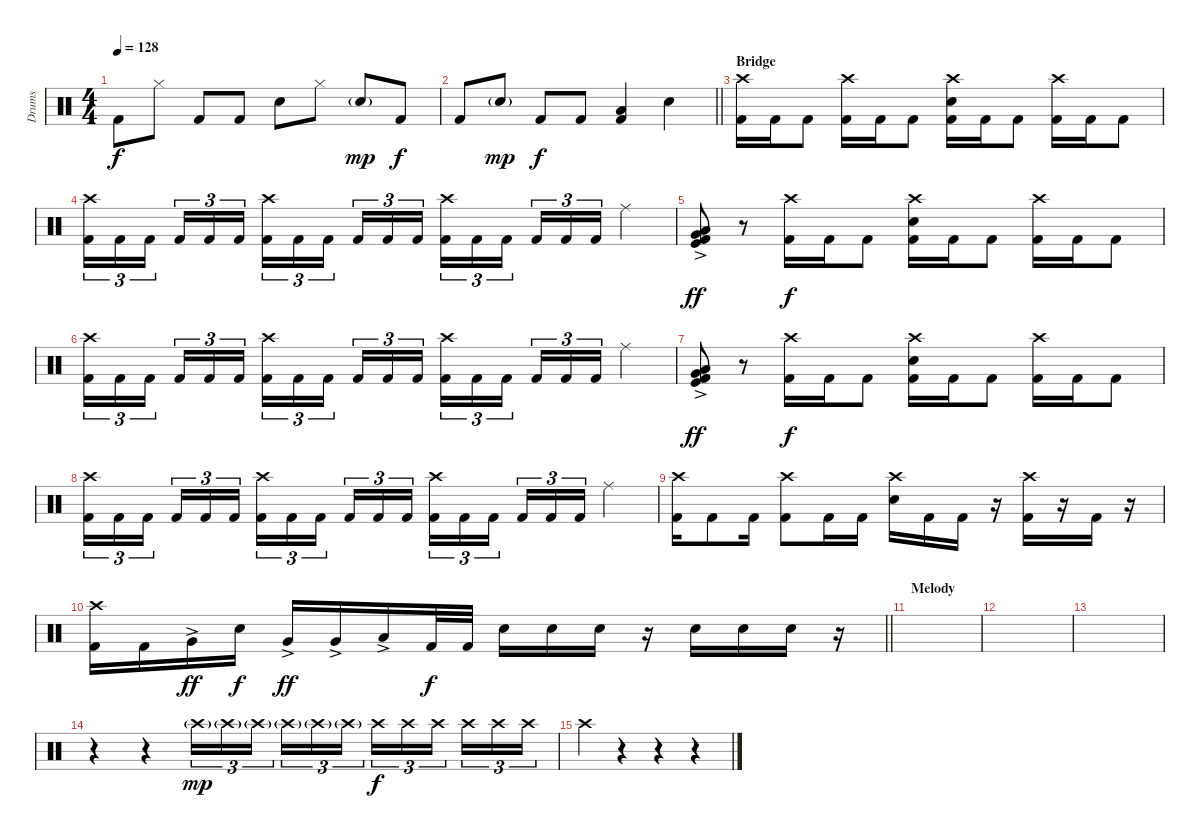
\track ("Drums" "Drums") {instrument percussion}
\staff {score}
\articulation defaults
\ts (4 4)
\tempo 128
\clef neutral
\ks c "Kick (hit) 2".8{dy f} "Hi-Hat (closed)".8 "Kick (hit) 2".8 "Kick (hit) 2".8 "Electric Snare (hit)".8 "Hi-Hat (closed)".8 "Electric Snare (hit)"{g}.8{dy mp} "Kick (hit) 2".8{dy f}
|
\barLineRight lightlight "Kick (hit) 2".8 "Electric Snare (hit)"{g}.8{dy mp} "Kick (hit) 2".8{dy f} "Kick (hit) 2".8
("Low Tom (hit)" "Kick (hit) 2").4 "Electric Snare (hit)".4 |
\section ("" "Bridge")
("Crash high (hit)" "Kick (hit) 2").16 "Kick (hit) 2".16 "Kick (hit) 2".8 ("Crash high (hit)" "Kick (hit) 2").16 "Kick (hit) 2".16 "Kick (hit) 2".8 ("Crash high (hit)" "Electric Snare (hit)" "Kick (hit) 2").16 "Kick (hit) 2".16 "Kick (hit) 2".8 ("Crash high (hit)" "Kick (hit) 2").16 "Kick (hit) 2".16 "Kick (hit) 2".8 |
("Crash high (hit)" "Kick (hit) 2").16{tu (3 2)} "Kick (hit) 2".16{tu (3 2)} "Kick (hit) 2".16{tu (3 2)} "Kick (hit) 2".16{tu (3 2)} "Kick (hit) 2".16{tu (3 2)} "Kick (hit) 2".16{tu (3 2)} ("Crash high (hit)" "Kick (hit) 2").16{tu (3 2)} "Kick (hit) 2".16{tu (3 2)} "Kick (hit) 2".16{tu (3 2)} "Kick (hit) 2".16{tu (3 2)} "Kick (hit) 2".16{tu (3 2)} "Kick (hit) 2".16{tu (3 2)} ("Crash high (hit)" "Kick (hit) 2").16{tu (3 2)} "Kick (hit) 2".16{tu (3 2)} "Kick (hit) 2".16{tu (3 2)} "Kick (hit) 2".16{tu (3 2)} "Kick (hit) 2".16{tu (3 2)} "Kick (hit) 2".16{tu (3 2)} "Ride (middle)".4 |
("Very Low Tom (hit)"{ac} "Low Floor Tom (hit)"{ac} "Kick (hit)" "Kick (hit) 2").8{dy ff} r.8 ("Crash high (hit)" "Kick (hit) 2").16{dy f} "Kick (hit) 2".16 "Kick (hit) 2".8 ("Crash high (hit)" "Electric Snare (hit)" "Kick (hit) 2").16 "Kick (hit) 2".16 "Kick (hit) 2".8 ("Crash high (hit)" "Kick (hit) 2").16 "Kick (hit) 2".16 "Kick (hit) 2".8 |
("Crash high (hit)" "Kick (hit) 2").16{tu (3 2)} "Kick (hit) 2".16{tu (3 2)} "Kick (hit) 2".16{tu (3 2)} "Kick (hit) 2".16{tu (3 2)} "Kick (hit) 2".16{tu (3 2)} "Kick (hit) 2".16{tu (3 2)} ("Crash high (hit)" "Kick (hit) 2").16{tu (3 2)} "Kick (hit) 2".16{tu (3 2)} "Kick (hit) 2".16{tu (3 2)} "Kick (hit) 2".16{tu (3 2)} "Kick (hit) 2".16{tu (3 2)} "Kick (hit) 2".16{tu (3 2)} ("Crash high (hit)" "Kick (hit) 2").16{tu (3 2)} "Kick (hit) 2".16{tu (3 2)} "Kick (hit) 2".16{tu (3 2)} "Kick (hit) 2".16{tu (3 2)} "Kick (hit) 2".16{tu (3 2)} "Kick (hit) 2".16{tu (3 2)} "Ride (middle)".4 |
("Very Low Tom (hit)"{ac} "Low Floor Tom (hit)"{ac} "Kick (hit)" "Kick (hit) 2").8{dy ff} r.8 ("Crash high (hit)" "Kick (hit) 2").16{dy f} "Kick (hit) 2".16 "Kick (hit) 2".8 ("Crash high (hit)" "Electric Snare (hit)" "Kick (hit) 2").16 "Kick (hit) 2".16 "Kick (hit) 2".8 ("Crash high (hit)" "Kick (hit) 2").16 "Kick (hit) 2".16 "Kick (hit) 2".8 |
("Crash high (hit)" "Kick (hit) 2").16{tu (3 2)} "Kick (hit) 2".16{tu (3 2)} "Kick (hit) 2".16{tu (3 2)} "Kick (hit) 2".16{tu (3 2)} "Kick (hit) 2".16{tu (3 2)} "Kick (hit) 2".16{tu (3 2)} ("Crash high (hit)" "Kick (hit) 2").16{tu (3 2)} "Kick (hit) 2".16{tu (3 2)} "Kick (hit) 2".16{tu (3 2)} "Kick (hit) 2".16{tu (3 2)} "Kick (hit) 2".16{tu (3 2)} "Kick (hit) 2".16{tu (3 2)} ("Crash high (hit)" "Kick (hit) 2").16{tu (3 2)} "Kick (hit) 2".16{tu (3 2)} "Kick (hit) 2".16{tu (3 2)} "Kick (hit) 2".16{tu (3 2)} "Kick (hit) 2".16{tu (3 2)} "Kick (hit) 2".16{tu (3 2)} "Ride (middle)".4 |
("Crash high (hit)" "Kick (hit) 2").16 "Kick (hit) 2".8 "Kick (hit) 2".16 ("Crash high (hit)" "Kick (hit) 2").8 "Kick (hit) 2".16 "Kick (hit) 2".16 ("Crash high (hit)" "Electric Snare (hit)").16 "Kick (hit) 2".16 "Kick (hit) 2".16 r.16 ("Crash high (hit)" "Kick (hit) 2").16 r.16 "Kick (hit) 2".16 r.16 |
\barLineRight lightlight
("Crash high (hit)" "Kick (hit) 2").16 "Kick (hit) 2".16 "Very Low Tom (hit)"{ac}.16{dy ff} "Electric Snare (hit)".16{dy f} "Very Low Tom (hit)"{ac}.16{dy ff} "Very Low Tom (hit)"{ac}.16 "Low Floor Tom (hit)"{ac}.16 "Kick (hit) 2".32{dy f} "Kick (hit) 2".32 "Electric Snare (hit)".16 "Electric Snare (hit)".16 "Electric Snare (hit)".16 r.16 "Electric Snare (hit)".16 "Electric Snare (hit)".16 "Electric Snare (hit)".16 r.16 |
\section ("" "Melody")
|
|
|
r.4 r.4 "Crash high (hit)"{g}.16{tu (3 2) dy mp} "Crash high (hit)"{g}.16{tu (3 2)} "Crash high (hit)"{g}.16{tu (3 2)} "Crash high (hit)"{g}.16{tu (3 2)} "Crash high (hit)"{g}.16{tu (3 2)} "Crash high (hit)"{g}.16{tu (3 2)} "Crash high (hit)".16{tu (3 2) dy f} "Crash high (hit)".16{tu (3 2)} "Crash high (hit)".16{tu (3 2)} "Crash high (hit)".16{tu (3 2)} "Crash high (hit)".16{tu (3 2)} "Crash high (hit)".16{tu (3 2)} |
"Crash high (hit)".4 r.4 r.4 r.4
